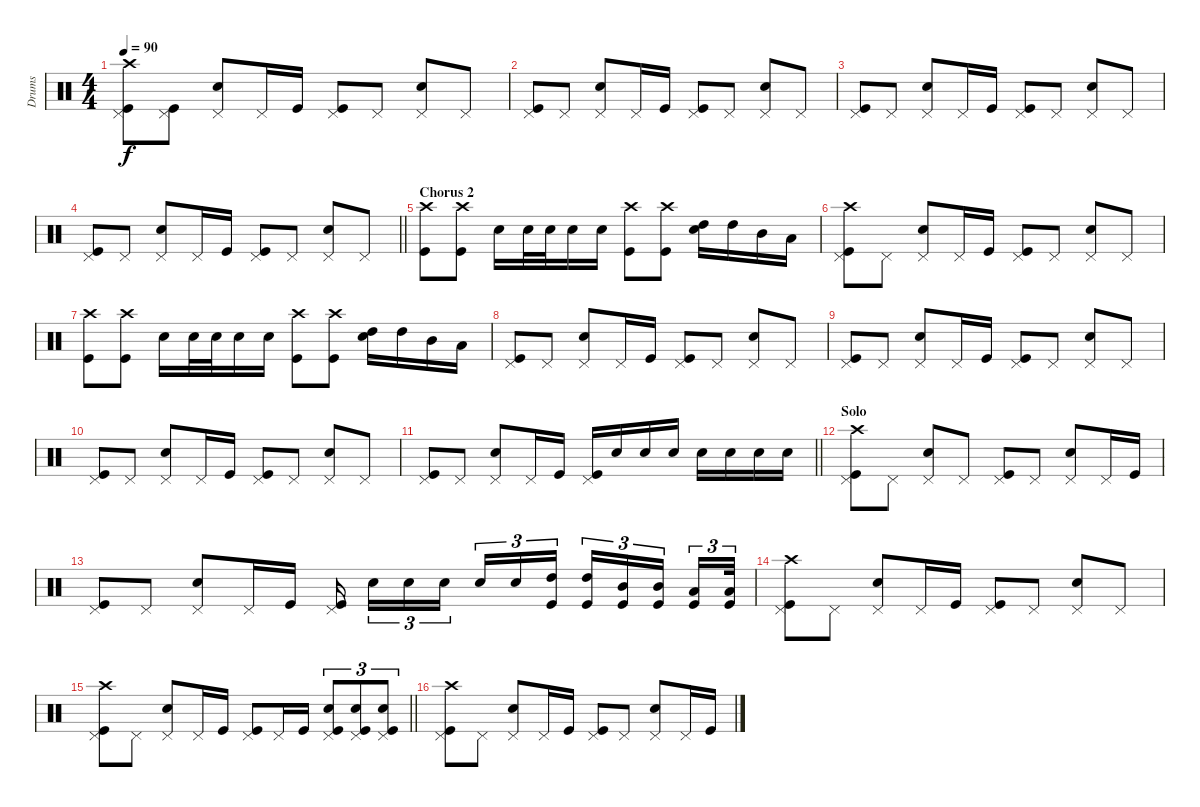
\track ("Drums" "Drums") {instrument percussion}
\staff {score}
\articulation defaults
\ts (4 4)
\tempo 90
\clef neutral
\ks c
("Pedal Hi-Hat (hit)" "Kick (hit)" "Crash high (hit)").8{dy f} ("Pedal Hi-Hat (hit)" "Kick (hit)").8 ("Pedal Hi-Hat (hit)" "Snare (hit) 2").8 "Pedal Hi-Hat (hit)".16 "Kick (hit)".16 ("Pedal Hi-Hat (hit)" "Kick (hit)").8 "Pedal Hi-Hat (hit)".8 ("Pedal Hi-Hat (hit)" "Snare (hit) 2").8 "Pedal Hi-Hat (hit)".8 |
("Pedal Hi-Hat (hit)" "Kick (hit)").8 "Pedal Hi-Hat (hit)".8 ("Pedal Hi-Hat (hit)" "Snare (hit) 2").8 "Pedal Hi-Hat (hit)".16 "Kick (hit)".16 ("Pedal Hi-Hat (hit)" "Kick (hit)").8 "Pedal Hi-Hat (hit)".8 ("Pedal Hi-Hat (hit)" "Snare (hit) 2").8 "Pedal Hi-Hat (hit)".8 |
("Pedal Hi-Hat (hit)" "Kick (hit)").8 "Pedal Hi-Hat (hit)".8 ("Pedal Hi-Hat (hit)" "Snare (hit) 2").8 "Pedal Hi-Hat (hit)".16 "Kick (hit)".16 ("Pedal Hi-Hat (hit)" "Kick (hit)").8 "Pedal Hi-Hat (hit)".8 ("Pedal Hi-Hat (hit)" "Snare (hit) 2").8 "Pedal Hi-Hat (hit)".8 |
\barLineRight lightlight
("Pedal Hi-Hat (hit)" "Kick (hit)").8 "Pedal Hi-Hat (hit)".8 ("Pedal Hi-Hat (hit)" "Snare (hit) 2").8 "Pedal Hi-Hat (hit)".16 "Kick (hit)".16 ("Pedal Hi-Hat (hit)" "Kick (hit)").8 "Pedal Hi-Hat (hit)".8 ("Pedal Hi-Hat (hit)" "Snare (hit) 2").8 "Pedal Hi-Hat (hit)".8 |
\section ("" "Chorus 2")
("Kick (hit)" "Crash high (hit)").8 ("Kick (hit)" "Crash high (hit)").8 "Snare (hit) 2".16 "Snare (hit) 2".32 "Snare (hit) 2".32 "Snare (hit) 2".16 "Snare (hit) 2".16 ("Kick (hit)" "Crash high (hit)").8 ("Kick (hit)" "Crash high (hit)").8 ("Snare (hit) 2" "High Tom (hit)").16 "High Tom (hit)".16 "Mid Tom (hit)".16 "Low Tom (hit)".16 |
("Pedal Hi-Hat (hit)" "Kick (hit)" "Crash high (hit)").8 "Pedal Hi-Hat (hit)".8 ("Pedal Hi-Hat (hit)" "Snare (hit) 2").8 "Pedal Hi-Hat (hit)".16 "Kick (hit)".16 ("Pedal Hi-Hat (hit)" "Kick (hit)").8 "Pedal Hi-Hat (hit)".8 ("Pedal Hi-Hat (hit)" "Snare (hit) 2").8 "Pedal Hi-Hat (hit)".8 |
("Kick (hit)" "Crash high (hit)").8 ("Kick (hit)" "Crash high (hit)").8 "Snare (hit) 2".16 "Snare (hit) 2".32 "Snare (hit) 2".32 "Snare (hit) 2".16 "Snare (hit) 2".16 ("Kick (hit)" "Crash high (hit)").8 ("Kick (hit)" "Crash high (hit)").8 ("Snare (hit) 2" "High Tom (hit)").16 "High Tom (hit)".16 "Mid Tom (hit)".16 "Low Tom (hit)".16 |
("Pedal Hi-Hat (hit)" "Kick (hit)").8 "Pedal Hi-Hat (hit)".8 ("Pedal Hi-Hat (hit)" "Snare (hit) 2").8 "Pedal Hi-Hat (hit)".16 "Kick (hit)".16 ("Pedal Hi-Hat (hit)" "Kick (hit)").8 "Pedal Hi-Hat (hit)".8 ("Pedal Hi-Hat (hit)" "Snare (hit) 2").8 "Pedal Hi-Hat (hit)".8 |
("Pedal Hi-Hat (hit)" "Kick (hit)").8 "Pedal Hi-Hat (hit)".8 ("Pedal Hi-Hat (hit)" "Snare (hit) 2").8 "Pedal Hi-Hat (hit)".16 "Kick (hit)".16 ("Pedal Hi-Hat (hit)" "Kick (hit)").8 "Pedal Hi-Hat (hit)".8 ("Pedal Hi-Hat (hit)" "Snare (hit) 2").8 "Pedal Hi-Hat (hit)".8 |
("Pedal Hi-Hat (hit)" "Kick (hit)").8 "Pedal Hi-Hat (hit)".8 ("Pedal Hi-Hat (hit)" "Snare (hit) 2").8 "Pedal Hi-Hat (hit)".16 "Kick (hit)".16 ("Pedal Hi-Hat (hit)" "Kick (hit)").8 "Pedal Hi-Hat (hit)".8 ("Pedal Hi-Hat (hit)" "Snare (hit) 2").8 "Pedal Hi-Hat (hit)".8 |
\barLineRight lightlight
("Pedal Hi-Hat (hit)" "Kick (hit)").8 "Pedal Hi-Hat (hit)".8 ("Pedal Hi-Hat (hit)" "Snare (hit) 2").8 "Pedal Hi-Hat (hit)".16 "Kick (hit)".16 ("Pedal Hi-Hat (hit)" "Kick (hit)").16 "Snare (hit) 2".16 "Snare (hit) 2".16 "Snare (hit) 2".16 "Snare (hit) 2".16 "Snare (hit) 2".16 "Snare (hit) 2".16 "Snare (hit) 2".16 |
\section ("" "Solo")
("Pedal Hi-Hat (hit)" "Kick (hit)" "Crash high (hit)").8 "Pedal Hi-Hat (hit)".8 ("Pedal Hi-Hat (hit)" "Snare (hit) 2").8 "Pedal Hi-Hat (hit)".8 ("Pedal Hi-Hat (hit)" "Kick (hit)").8 "Pedal Hi-Hat (hit)".8 ("Pedal Hi-Hat (hit)" "Snare (hit) 2").8 "Pedal Hi-Hat (hit)".16 "Kick (hit)".16 |
("Pedal Hi-Hat (hit)" "Kick (hit)").8 "Pedal Hi-Hat (hit)".8 ("Pedal Hi-Hat (hit)" "Snare (hit) 2").8 "Pedal Hi-Hat (hit)".16 "Kick (hit)".16 ("Pedal Hi-Hat (hit)" "Kick (hit)").16 "Snare (hit) 2".16{tu (3 2)} "Snare (hit) 2".16{tu (3 2)} "Snare (hit) 2".16{tu (3 2)} "Snare (hit) 2".16{tu (3 2)} "Snare (hit) 2".16{tu (3 2)} ("High Tom (hit)" "Kick (hit)").16{tu (3 2)} ("High Tom (hit)" "Kick (hit)").16{tu (3 2)} ("Mid Tom (hit)" "Kick (hit)").16{tu (3 2)} ("Mid Tom (hit)" "Kick (hit)").16{tu (3 2)} ("Low Tom (hit)" "Kick (hit)").16{tu (3 2)} ("Low Tom (hit)" "Kick (hit)").32{tu (3 2)} |
("Pedal Hi-Hat (hit)" "Kick (hit)" "Crash high (hit)").8 "Pedal Hi-Hat (hit)".8 ("Pedal Hi-Hat (hit)" "Snare (hit) 2").8 "Pedal Hi-Hat (hit)".16 "Kick (hit)".16 ("Pedal Hi-Hat (hit)" "Kick (hit)").8 "Pedal Hi-Hat (hit)".8 ("Pedal Hi-Hat (hit)" "Snare (hit) 2").8 "Pedal Hi-Hat (hit)".8 |
\barLineRight lightlight
("Pedal Hi-Hat (hit)" "Kick (hit)" "Crash high (hit)").8 "Pedal Hi-Hat (hit)".8 ("Pedal Hi-Hat (hit)" "Snare (hit) 2").8 "Pedal Hi-Hat (hit)".16 "Kick (hit)".16 ("Pedal Hi-Hat (hit)" "Kick (hit)").8 "Pedal Hi-Hat (hit)".16 "Kick (hit)".16 ("Pedal Hi-Hat (hit)" "Snare (hit) 2" "Kick (hit)").8{tu (3 2)} ("Pedal Hi-Hat (hit)" "Snare (hit) 2" "Kick (hit)").8{tu (3 2)} ("Pedal Hi-Hat (hit)" "Snare (hit) 2" "Kick (hit)").8{tu (3 2)} |
("Pedal Hi-Hat (hit)" "Kick (hit)" "Crash high (hit)").8 "Pedal Hi-Hat (hit)".8 ("Pedal Hi-Hat (hit)" "Snare (hit) 2").8 "Pedal Hi-Hat (hit)".16 "Kick (hit)".16 ("Pedal Hi-Hat (hit)" "Kick (hit)").8 "Pedal Hi-Hat (hit)".8 ("Pedal Hi-Hat (hit)" "Snare (hit) 2").8 "Pedal Hi-Hat (hit)".16 "Kick (hit)".16
